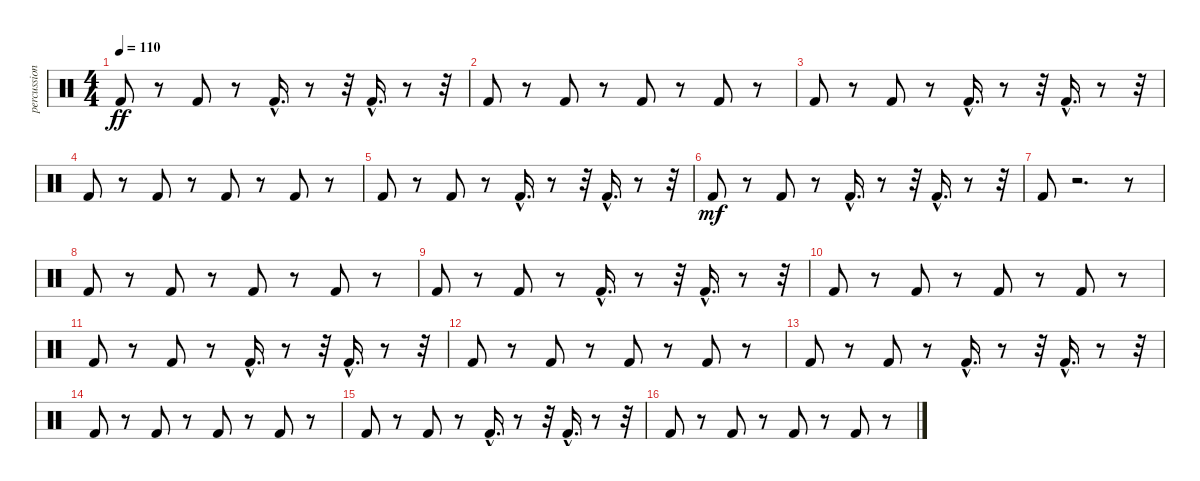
\track ("percussions 1" "percussion") {instrument percussion}
\staff {score}
\articulation defaults
\ts (4 4)
\tempo 110
\clef neutral
\ks c "Kick (hit) 2".8{dy ff}
r.8 "Kick (hit) 2".8 r.8 "Kick (hit) 2"{hac}.16{d} r.8 r.32 "Kick (hit) 2"{hac}.16{d} r.8 r.32 |
"Kick (hit) 2".8 r.8 "Kick (hit) 2".8 r.8 "Kick (hit) 2".8 r.8 "Kick (hit) 2".8 r.8 |
"Kick (hit) 2".8 r.8 "Kick (hit) 2".8 r.8 "Kick (hit) 2"{hac}.16{d} r.8 r.32 "Kick (hit) 2"{hac}.16{d} r.8 r.32 |
"Kick (hit) 2".8 r.8 "Kick (hit) 2".8 r.8 "Kick (hit) 2".8 r.8 "Kick (hit) 2".8 r.8 |
"Kick (hit) 2".8 r.8 "Kick (hit) 2".8 r.8 "Kick (hit) 2"{hac}.16{d} r.8 r.32 "Kick (hit) 2"{hac}.16{d} r.8 r.32 |
"Kick (hit) 2".8{dy mf} r.8 "Kick (hit) 2".8 r.8 "Kick (hit) 2"{hac}.16{d} r.8 r.32 "Kick (hit) 2"{hac}.16{d} r.8 r.32 |
"Kick (hit) 2".8 r.2{d} r.8 |
"Kick (hit) 2".8 r.8 "Kick (hit) 2".8 r.8 "Kick (hit) 2".8 r.8 "Kick (hit) 2".8 r.8 |
"Kick (hit) 2".8 r.8 "Kick (hit) 2".8 r.8 "Kick (hit) 2"{hac}.16{d} r.8 r.32 "Kick (hit) 2"{hac}.16{d} r.8 r.32 |
"Kick (hit) 2".8 r.8 "Kick (hit) 2".8 r.8 "Kick (hit) 2".8 r.8 "Kick (hit) 2".8 r.8 |
"Kick (hit) 2".8 r.8 "Kick (hit) 2".8 r.8 "Kick (hit) 2"{hac}.16{d} r.8 r.32 "Kick (hit) 2"{hac}.16{d} r.8 r.32 |
"Kick (hit) 2".8 r.8 "Kick (hit) 2".8 r.8 "Kick (hit) 2".8 r.8 "Kick (hit) 2".8 r.8 |
"Kick (hit) 2".8 r.8 "Kick (hit) 2".8 r.8 "Kick (hit) 2"{hac}.16{d} r.8 r.32 "Kick (hit) 2"{hac}.16{d} r.8 r.32 |
"Kick (hit) 2".8 r.8 "Kick (hit) 2".8 r.8 "Kick (hit) 2".8 r.8 "Kick (hit) 2".8 r.8 |
"Kick (hit) 2".8 r.8 "Kick (hit) 2".8 r.8 "Kick (hit) 2"{hac}.16{d} r.8 r.32 "Kick (hit) 2"{hac}.16{d} r.8 r.32 |
"Kick (hit) 2".8 r.8 "Kick (hit) 2".8 r.8 "Kick (hit) 2".8 r.8 "Kick (hit) 2".8 r.8
